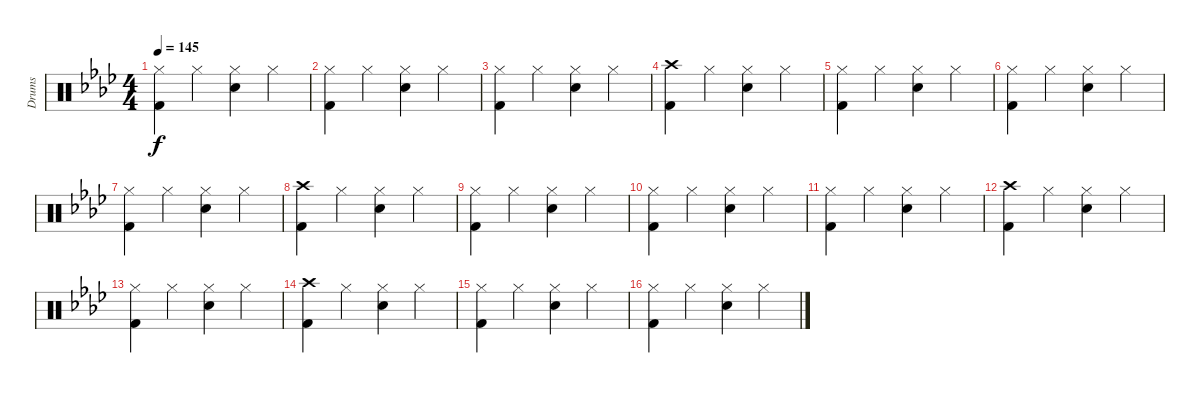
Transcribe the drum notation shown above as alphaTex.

\track ("Drums" "Drums") {instrument percussion}
\staff {score}
\articulation defaults
\ts (4 4)
\tempo 145
\clef neutral
\ks ab
("Hi-Hat (closed)" "Kick (hit) 2").4{dy f} "Hi-Hat (closed)".4 ("Hi-Hat (closed)" "Electric Snare (hit)").4 "Hi-Hat (closed)".4 |
("Hi-Hat (closed)" "Kick (hit) 2").4 "Hi-Hat (closed)".4 ("Hi-Hat (closed)" "Electric Snare (hit)").4 "Hi-Hat (closed)".4 |
("Hi-Hat (closed)" "Kick (hit) 2").4 "Hi-Hat (closed)".4 ("Hi-Hat (closed)" "Electric Snare (hit)").4 "Hi-Hat (closed)".4 |
("Crash high (hit)" "Kick (hit) 2").4 "Hi-Hat (closed)".4 ("Hi-Hat (closed)" "Electric Snare (hit)").4 "Hi-Hat (closed)".4 |
("Hi-Hat (closed)" "Kick (hit) 2").4 "Hi-Hat (closed)".4 ("Hi-Hat (closed)" "Electric Snare (hit)").4 "Hi-Hat (closed)".4 |
("Hi-Hat (closed)" "Kick (hit) 2").4 "Hi-Hat (closed)".4 ("Hi-Hat (closed)" "Electric Snare (hit)").4 "Hi-Hat (closed)".4 |
("Hi-Hat (closed)" "Kick (hit) 2").4 "Hi-Hat (closed)".4 ("Hi-Hat (closed)" "Electric Snare (hit)").4 "Hi-Hat (closed)".4 |
("Crash high (hit)" "Kick (hit) 2").4 "Hi-Hat (closed)".4 ("Hi-Hat (closed)" "Electric Snare (hit)").4 "Hi-Hat (closed)".4 |
("Hi-Hat (closed)" "Kick (hit) 2").4 "Hi-Hat (closed)".4 ("Hi-Hat (closed)" "Electric Snare (hit)").4 "Hi-Hat (closed)".4 |
("Hi-Hat (closed)" "Kick (hit) 2").4 "Hi-Hat (closed)".4 ("Hi-Hat (closed)" "Electric Snare (hit)").4 "Hi-Hat (closed)".4 |
("Hi-Hat (closed)" "Kick (hit) 2").4 "Hi-Hat (closed)".4 ("Hi-Hat (closed)" "Electric Snare (hit)").4 "Hi-Hat (closed)".4 |
("Crash high (hit)" "Kick (hit) 2").4 "Hi-Hat (closed)".4 ("Hi-Hat (closed)" "Electric Snare (hit)").4 "Hi-Hat (closed)".4 |
("Hi-Hat (closed)" "Kick (hit) 2").4 "Hi-Hat (closed)".4 ("Hi-Hat (closed)" "Electric Snare (hit)").4 "Hi-Hat (closed)".4 |
("Crash high (hit)" "Kick (hit) 2").4 "Hi-Hat (closed)".4 ("Hi-Hat (closed)" "Electric Snare (hit)").4 "Hi-Hat (closed)".4 |
("Hi-Hat (closed)" "Kick (hit) 2").4 "Hi-Hat (closed)".4 ("Hi-Hat (closed)" "Electric Snare (hit)").4 "Hi-Hat (closed)".4 |
("Hi-Hat (closed)" "Kick (hit) 2").4 "Hi-Hat (closed)".4 ("Hi-Hat (closed)" "Electric Snare (hit)").4 "Hi-Hat (closed)".4
